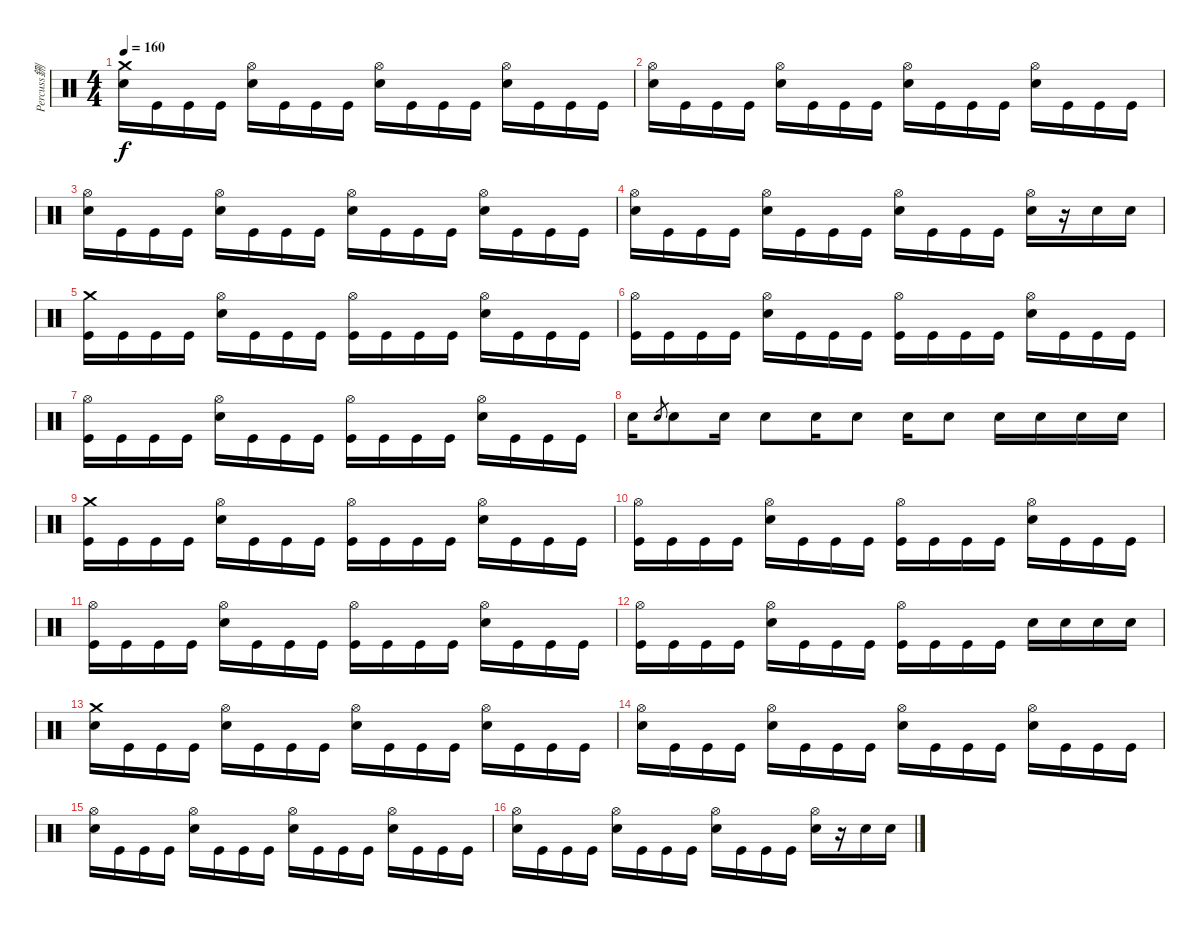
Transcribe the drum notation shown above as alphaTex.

\track ("Percuss鉶" "Percuss鉶") {instrument percussion}
\staff {score}
\articulation defaults
\ts (4 4)
\tempo 160
\clef neutral
\ks c
("Crash medium (hit)" "Electric Snare (hit)").16{dy f} "Kick (hit)".16 "Kick (hit)".16 "Kick (hit)".16 ("Hi-Hat (open)" "Electric Snare (hit)").16 "Kick (hit)".16 "Kick (hit)".16 "Kick (hit)".16 ("Hi-Hat (open)" "Electric Snare (hit)").16 "Kick (hit)".16 "Kick (hit)".16 "Kick (hit)".16 ("Hi-Hat (open)" "Electric Snare (hit)").16 "Kick (hit)".16 "Kick (hit)".16 "Kick (hit)".16 |
("Hi-Hat (open)" "Electric Snare (hit)").16 "Kick (hit)".16 "Kick (hit)".16 "Kick (hit)".16 ("Hi-Hat (open)" "Electric Snare (hit)").16 "Kick (hit)".16 "Kick (hit)".16 "Kick (hit)".16 ("Hi-Hat (open)" "Electric Snare (hit)").16 "Kick (hit)".16 "Kick (hit)".16 "Kick (hit)".16 ("Hi-Hat (open)" "Electric Snare (hit)").16 "Kick (hit)".16 "Kick (hit)".16 "Kick (hit)".16 |
("Hi-Hat (open)" "Electric Snare (hit)").16 "Kick (hit)".16 "Kick (hit)".16 "Kick (hit)".16 ("Hi-Hat (open)" "Electric Snare (hit)").16 "Kick (hit)".16 "Kick (hit)".16 "Kick (hit)".16 ("Hi-Hat (open)" "Electric Snare (hit)").16 "Kick (hit)".16 "Kick (hit)".16 "Kick (hit)".16 ("Hi-Hat (open)" "Electric Snare (hit)").16 "Kick (hit)".16 "Kick (hit)".16 "Kick (hit)".16 |
("Hi-Hat (open)" "Electric Snare (hit)").16 "Kick (hit)".16 "Kick (hit)".16 "Kick (hit)".16 ("Hi-Hat (open)" "Electric Snare (hit)").16 "Kick (hit)".16 "Kick (hit)".16 "Kick (hit)".16 ("Hi-Hat (open)" "Electric Snare (hit)").16 "Kick (hit)".16 "Kick (hit)".16 "Kick (hit)".16 ("Hi-Hat (open)" "Electric Snare (hit)").16 r.16 "Electric Snare (hit)".16 "Electric Snare (hit)".16 |
("Crash medium (hit)" "Kick (hit)").16 "Kick (hit)".16 "Kick (hit)".16 "Kick (hit)".16 ("Hi-Hat (open)" "Electric Snare (hit)").16 "Kick (hit)".16 "Kick (hit)".16 "Kick (hit)".16 ("Hi-Hat (open)" "Kick (hit)").16 "Kick (hit)".16 "Kick (hit)".16 "Kick (hit)".16 ("Hi-Hat (open)" "Electric Snare (hit)").16 "Kick (hit)".16 "Kick (hit)".16 "Kick (hit)".16 |
("Hi-Hat (open)" "Kick (hit)").16 "Kick (hit)".16 "Kick (hit)".16 "Kick (hit)".16 ("Hi-Hat (open)" "Electric Snare (hit)").16 "Kick (hit)".16 "Kick (hit)".16 "Kick (hit)".16 ("Hi-Hat (open)" "Kick (hit)").16 "Kick (hit)".16 "Kick (hit)".16 "Kick (hit)".16 ("Hi-Hat (open)" "Electric Snare (hit)").16 "Kick (hit)".16 "Kick (hit)".16 "Kick (hit)".16 |
("Hi-Hat (open)" "Kick (hit)").16 "Kick (hit)".16 "Kick (hit)".16 "Kick (hit)".16 ("Hi-Hat (open)" "Electric Snare (hit)").16 "Kick (hit)".16 "Kick (hit)".16 "Kick (hit)".16 ("Hi-Hat (open)" "Kick (hit)").16 "Kick (hit)".16 "Kick (hit)".16 "Kick (hit)".16 ("Hi-Hat (open)" "Electric Snare (hit)").16 "Kick (hit)".16 "Kick (hit)".16 "Kick (hit)".16 |
"Electric Snare (hit)".16 "Electric Snare (hit)".8{gr} "Electric Snare (hit)".8 "Electric Snare (hit)".16 "Electric Snare (hit)".8 "Electric Snare (hit)".16 "Electric Snare (hit)".8 "Electric Snare (hit)".16 "Electric Snare (hit)".8 "Electric Snare (hit)".16 "Electric Snare (hit)".16 "Electric Snare (hit)".16 "Electric Snare (hit)".16 |
("Crash medium (hit)" "Kick (hit)").16 "Kick (hit)".16 "Kick (hit)".16 "Kick (hit)".16 ("Hi-Hat (open)" "Electric Snare (hit)").16 "Kick (hit)".16 "Kick (hit)".16 "Kick (hit)".16 ("Hi-Hat (open)" "Kick (hit)").16 "Kick (hit)".16 "Kick (hit)".16 "Kick (hit)".16 ("Hi-Hat (open)" "Electric Snare (hit)").16 "Kick (hit)".16 "Kick (hit)".16 "Kick (hit)".16 |
("Hi-Hat (open)" "Kick (hit)").16 "Kick (hit)".16 "Kick (hit)".16 "Kick (hit)".16 ("Hi-Hat (open)" "Electric Snare (hit)").16 "Kick (hit)".16 "Kick (hit)".16 "Kick (hit)".16 ("Hi-Hat (open)" "Kick (hit)").16 "Kick (hit)".16 "Kick (hit)".16 "Kick (hit)".16 ("Hi-Hat (open)" "Electric Snare (hit)").16 "Kick (hit)".16 "Kick (hit)".16 "Kick (hit)".16 |
("Hi-Hat (open)" "Kick (hit)").16 "Kick (hit)".16 "Kick (hit)".16 "Kick (hit)".16 ("Hi-Hat (open)" "Electric Snare (hit)").16 "Kick (hit)".16 "Kick (hit)".16 "Kick (hit)".16 ("Hi-Hat (open)" "Kick (hit)").16 "Kick (hit)".16 "Kick (hit)".16 "Kick (hit)".16 ("Hi-Hat (open)" "Electric Snare (hit)").16 "Kick (hit)".16 "Kick (hit)".16 "Kick (hit)".16 |
("Hi-Hat (open)" "Kick (hit)").16 "Kick (hit)".16 "Kick (hit)".16 "Kick (hit)".16 ("Hi-Hat (open)" "Electric Snare (hit)").16 "Kick (hit)".16 "Kick (hit)".16 "Kick (hit)".16 ("Hi-Hat (open)" "Kick (hit)").16 "Kick (hit)".16 "Kick (hit)".16 "Kick (hit)".16 "Electric Snare (hit)".16 "Electric Snare (hit)".16 "Electric Snare (hit)".16 "Electric Snare (hit)".16 |
("Crash medium (hit)" "Electric Snare (hit)").16 "Kick (hit)".16 "Kick (hit)".16 "Kick (hit)".16 ("Hi-Hat (open)" "Electric Snare (hit)").16 "Kick (hit)".16 "Kick (hit)".16 "Kick (hit)".16 ("Hi-Hat (open)" "Electric Snare (hit)").16 "Kick (hit)".16 "Kick (hit)".16 "Kick (hit)".16 ("Hi-Hat (open)" "Electric Snare (hit)").16 "Kick (hit)".16 "Kick (hit)".16 "Kick (hit)".16 |
("Hi-Hat (open)" "Electric Snare (hit)").16 "Kick (hit)".16 "Kick (hit)".16 "Kick (hit)".16 ("Hi-Hat (open)" "Electric Snare (hit)").16 "Kick (hit)".16 "Kick (hit)".16 "Kick (hit)".16 ("Hi-Hat (open)" "Electric Snare (hit)").16 "Kick (hit)".16 "Kick (hit)".16 "Kick (hit)".16 ("Hi-Hat (open)" "Electric Snare (hit)").16 "Kick (hit)".16 "Kick (hit)".16 "Kick (hit)".16 |
("Hi-Hat (open)" "Electric Snare (hit)").16 "Kick (hit)".16 "Kick (hit)".16 "Kick (hit)".16 ("Hi-Hat (open)" "Electric Snare (hit)").16 "Kick (hit)".16 "Kick (hit)".16 "Kick (hit)".16 ("Hi-Hat (open)" "Electric Snare (hit)").16 "Kick (hit)".16 "Kick (hit)".16 "Kick (hit)".16 ("Hi-Hat (open)" "Electric Snare (hit)").16 "Kick (hit)".16 "Kick (hit)".16 "Kick (hit)".16 |
("Hi-Hat (open)" "Electric Snare (hit)").16 "Kick (hit)".16 "Kick (hit)".16 "Kick (hit)".16 ("Hi-Hat (open)" "Electric Snare (hit)").16 "Kick (hit)".16 "Kick (hit)".16 "Kick (hit)".16 ("Hi-Hat (open)" "Electric Snare (hit)").16 "Kick (hit)".16 "Kick (hit)".16 "Kick (hit)".16 ("Hi-Hat (open)" "Electric Snare (hit)").16 r.16 "Electric Snare (hit)".16 "Electric Snare (hit)".16
